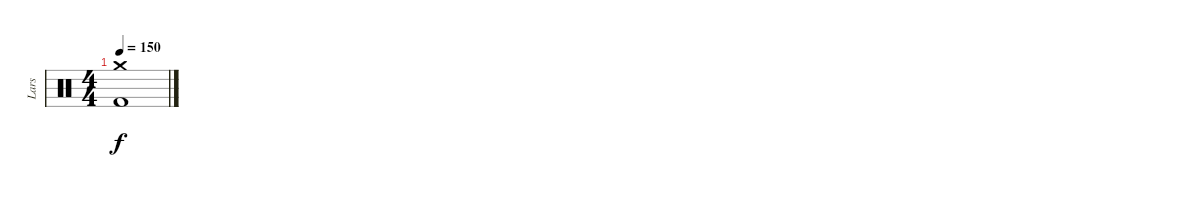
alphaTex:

\track ("Lars" "Lars") {instrument percussion}
\staff {score}
\articulation defaults
\ts (4 4)
\tempo 150
\clef neutral
\ks c
("Crash medium (hit)" "Kick (hit) 2").1{dy f}
